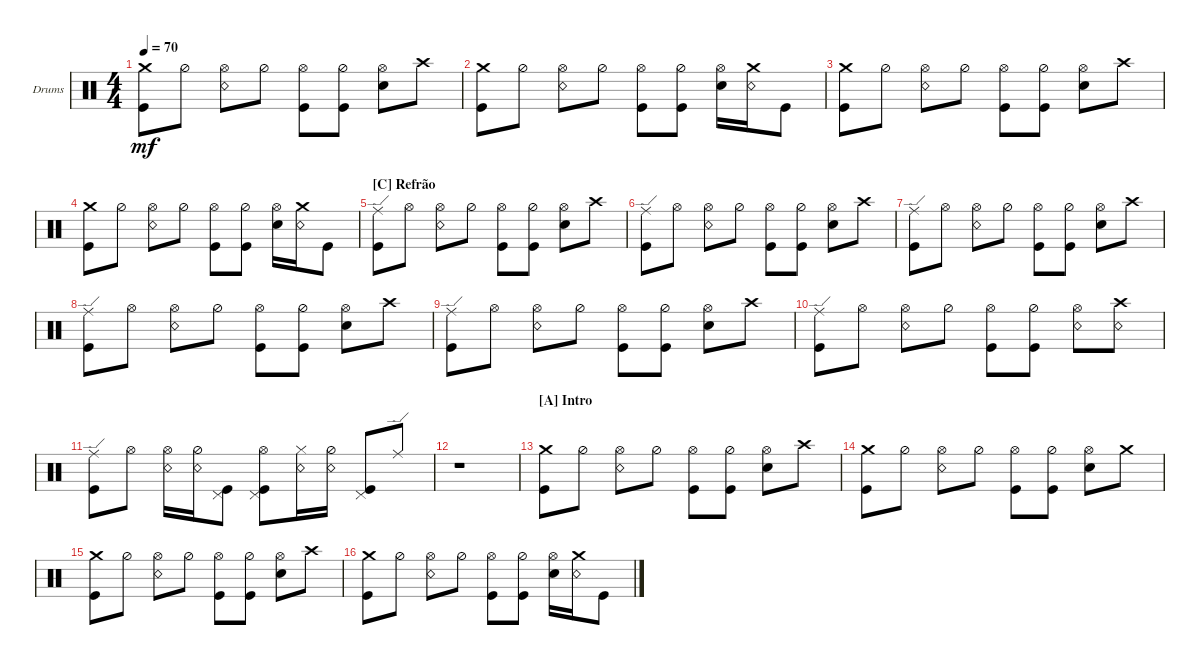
\defaultSystemsLayout 4
\bracketExtendMode groupsimilarinstruments
\firstSystemTrackNameOrientation horizontal
\otherSystemsTrackNameOrientation horizontal
\track ("Drum" "Drums") {multiBarRest instrument percussion}
\staff {score}
\articulation defaults
\ts (4 4)
\tempo 70
\clef neutral
\ks c
("Crash medium (hit)" "Kick (hit)").8{dy mf} "Hi-Hat (half)".8 ("Hi-Hat (open)" "Snare (rim shot)").8 "Hi-Hat (half)".8 ("Hi-Hat (open)" "Kick (hit)").8 ("Hi-Hat (half)" "Kick (hit)").8 ("Hi-Hat (open)" "Snare (hit) 2").8 "Crash high (hit)".8 |
("Crash medium (hit)" "Kick (hit)").8 "Hi-Hat (half)".8 ("Hi-Hat (open)" "Snare (rim shot)").8 "Hi-Hat (half)".8 ("Hi-Hat (open)" "Kick (hit)").8 ("Hi-Hat (half)" "Kick (hit)").8 ("Hi-Hat (open)" "Snare (hit) 2").16 ("Crash medium (hit)" "Snare (rim shot)").16 "Kick (hit)".8 |
("Crash medium (hit)" "Kick (hit)").8 "Hi-Hat (half)".8 ("Hi-Hat (open)" "Snare (rim shot)").8 "Hi-Hat (half)".8 ("Hi-Hat (open)" "Kick (hit)").8 ("Hi-Hat (half)" "Kick (hit)").8 ("Hi-Hat (open)" "Snare (hit) 2").8 "Crash high (hit)".8 |
("Crash medium (hit)" "Kick (hit)").8 "Hi-Hat (half)".8 ("Hi-Hat (open)" "Snare (rim shot)").8 "Hi-Hat (half)".8 ("Hi-Hat (open)" "Kick (hit)").8 ("Hi-Hat (half)" "Kick (hit)").8 ("Hi-Hat (open)" "Snare (hit) 2").16 ("Crash medium (hit)" "Snare (rim shot)").16 "Kick (hit)".8 |
\section ("C" "Refrão")
("Kick (hit)" "Ride (edge)").8 "Hi-Hat (open)".8 ("Hi-Hat (open)" "Snare (rim shot)").8 "Hi-Hat (half)".8 ("Hi-Hat (open)" "Kick (hit)").8 ("Hi-Hat (half)" "Kick (hit)").8 ("Hi-Hat (open)" "Snare (hit) 2").8 "Crash high (hit)".8 |
("Kick (hit)" "Ride (edge)").8 "Hi-Hat (open)".8 ("Hi-Hat (open)" "Snare (rim shot)").8 "Hi-Hat (half)".8 ("Hi-Hat (open)" "Kick (hit)").8 ("Hi-Hat (half)" "Kick (hit)").8 ("Hi-Hat (open)" "Snare (hit) 2").8 "Crash high (hit)".8 |
("Kick (hit)" "Ride (edge)").8 "Hi-Hat (open)".8 ("Hi-Hat (open)" "Snare (rim shot)").8 "Hi-Hat (half)".8 ("Hi-Hat (open)" "Kick (hit)").8 ("Hi-Hat (half)" "Kick (hit)").8 ("Hi-Hat (open)" "Snare (hit) 2").8 "Crash high (hit)".8 |
("Kick (hit)" "Ride (edge)").8 "Hi-Hat (open)".8 ("Hi-Hat (open)" "Snare (rim shot)").8 "Hi-Hat (half)".8 ("Hi-Hat (open)" "Kick (hit)").8 ("Hi-Hat (half)" "Kick (hit)").8 ("Hi-Hat (open)" "Snare (hit) 2").8 "Crash high (hit)".8 |
("Kick (hit)" "Ride (edge)").8 "Hi-Hat (open)".8 ("Hi-Hat (open)" "Snare (rim shot)").8 "Hi-Hat (half)".8 ("Hi-Hat (open)" "Kick (hit)").8 ("Hi-Hat (half)" "Kick (hit)").8 ("Hi-Hat (open)" "Snare (hit) 2").8 "Crash high (hit)".8 |
("Kick (hit)" "Ride (edge)").8 "Hi-Hat (open)".8 ("Hi-Hat (open)" "Snare (rim shot)").8 "Hi-Hat (half)".8 ("Hi-Hat (open)" "Kick (hit)").8 ("Hi-Hat (half)" "Kick (hit)").8 ("Hi-Hat (open)" "Snare (rim shot)").8 ("Crash high (hit)" "Snare (rim shot)").8 |
("Kick (hit)" "Ride (edge)").8 "Hi-Hat (open)".8 ("Snare (rim shot)" "Hi-Hat (open)").16 ("Snare (rim shot)" "Hi-Hat (half)").16 ("Kick (hit)" "Pedal Hi-Hat (hit)").8 ("Kick (hit)" "Pedal Hi-Hat (hit)" "Hi-Hat (open)").8 ("Snare (rim shot)" "Hi-Hat (closed)").16 ("Snare (rim shot)" "Hi-Hat (half)").16 ("Kick (hit)" "Pedal Hi-Hat (hit)").8 "Ride (edge)".8 |
r.1 |
\section ("A" "Intro")
("Crash medium (hit)" "Kick (hit)").8 "Hi-Hat (half)".8 ("Hi-Hat (open)" "Snare (rim shot)").8 "Hi-Hat (half)".8 ("Hi-Hat (open)" "Kick (hit)").8 ("Hi-Hat (half)" "Kick (hit)").8 ("Hi-Hat (open)" "Snare (hit) 2").8 "Crash high (hit)".8 |
("Kick (hit)" "Crash medium (hit)").8 "Hi-Hat (half)".8 ("Hi-Hat (open)" "Snare (rim shot)").8 "Hi-Hat (half)".8 ("Hi-Hat (open)" "Kick (hit)").8 ("Hi-Hat (half)" "Kick (hit)").8 ("Hi-Hat (open)" "Snare (hit) 2").8 "Crash medium (hit)".8 |
("Crash medium (hit)" "Kick (hit)").8 "Hi-Hat (half)".8 ("Hi-Hat (open)" "Snare (rim shot)").8 "Hi-Hat (half)".8 ("Hi-Hat (open)" "Kick (hit)").8 ("Hi-Hat (half)" "Kick (hit)").8 ("Hi-Hat (open)" "Snare (hit) 2").8 "Crash high (hit)".8 |
("Crash medium (hit)" "Kick (hit)").8 "Hi-Hat (half)".8 ("Hi-Hat (open)" "Snare (rim shot)").8 "Hi-Hat (half)".8 ("Hi-Hat (open)" "Kick (hit)").8 ("Hi-Hat (half)" "Kick (hit)").8 ("Hi-Hat (open)" "Snare (hit) 2").16 ("Crash medium (hit)" "Snare (rim shot)").16 "Kick (hit)".8
